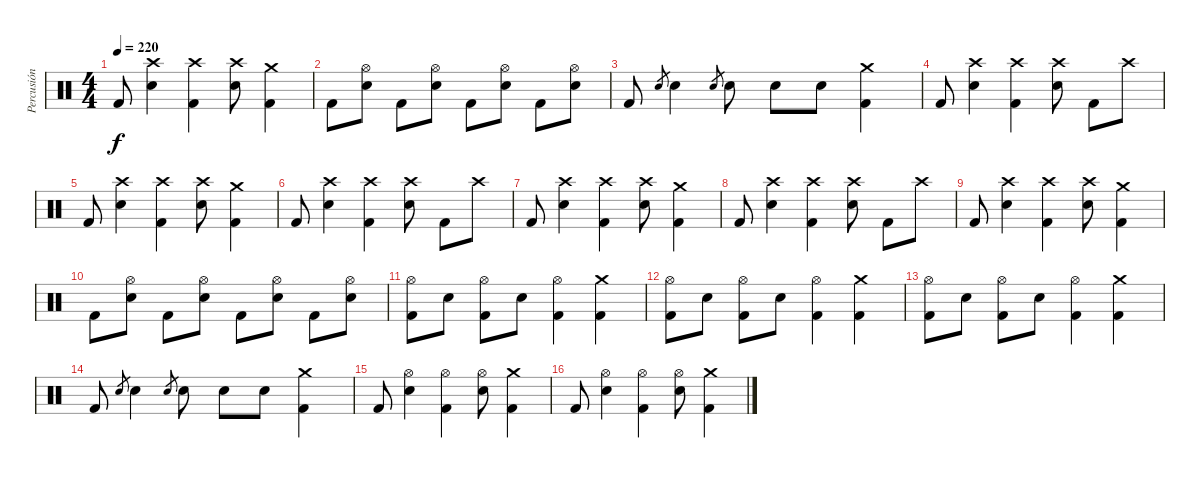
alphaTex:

\track ("Percusión" "Percusión") {instrument percussion}
\staff {score}
\articulation defaults
\ts (4 4)
\tempo 220
\clef neutral
\ks c "Kick (hit) 2".8{dy f}
("Crash high (hit)" "Snare (hit) 2").4 ("Crash high (hit)" "Kick (hit) 2").4 ("Crash high (hit)" "Snare (hit) 2").8 ("Crash medium (hit)" "Kick (hit) 2").4 |
"Kick (hit) 2".8 ("Hi-Hat (open)" "Snare (hit) 2").8 "Kick (hit) 2".8 ("Hi-Hat (open)" "Snare (hit) 2").8 "Kick (hit) 2".8 ("Hi-Hat (open)" "Snare (hit) 2").8 "Kick (hit) 2".8 ("Hi-Hat (open)" "Snare (hit) 2").8 |
"Kick (hit) 2".8 "Snare (hit) 2".8{gr} "Snare (hit) 2".4 "Snare (hit) 2".8{gr} "Snare (hit) 2".8 "Snare (hit) 2".8 "Snare (hit) 2".8 ("Crash medium (hit)" "Kick (hit) 2").4 |
"Kick (hit) 2".8 ("Crash high (hit)" "Snare (hit) 2").4 ("Crash high (hit)" "Kick (hit) 2").4 ("Crash high (hit)" "Snare (hit) 2").8 "Kick (hit) 2".8 "Crash high (hit)".8 |
"Kick (hit) 2".8 ("Crash high (hit)" "Snare (hit) 2").4 ("Crash high (hit)" "Kick (hit) 2").4 ("Crash high (hit)" "Snare (hit) 2").8 ("Crash medium (hit)" "Kick (hit) 2").4 |
"Kick (hit) 2".8 ("Crash high (hit)" "Snare (hit) 2").4 ("Crash high (hit)" "Kick (hit) 2").4 ("Crash high (hit)" "Snare (hit) 2").8 "Kick (hit) 2".8 "Crash high (hit)".8 |
"Kick (hit) 2".8 ("Crash high (hit)" "Snare (hit) 2").4 ("Crash high (hit)" "Kick (hit) 2").4 ("Crash high (hit)" "Snare (hit) 2").8 ("Crash medium (hit)" "Kick (hit) 2").4 |
"Kick (hit) 2".8 ("Crash high (hit)" "Snare (hit) 2").4 ("Crash high (hit)" "Kick (hit) 2").4 ("Crash high (hit)" "Snare (hit) 2").8 "Kick (hit) 2".8 "Crash high (hit)".8 |
"Kick (hit) 2".8 ("Crash high (hit)" "Snare (hit) 2").4 ("Crash high (hit)" "Kick (hit) 2").4 ("Crash high (hit)" "Snare (hit) 2").8 ("Crash medium (hit)" "Kick (hit) 2").4 |
"Kick (hit) 2".8 ("Hi-Hat (open)" "Snare (hit) 2").8 "Kick (hit) 2".8 ("Hi-Hat (open)" "Snare (hit) 2").8 "Kick (hit) 2".8 ("Hi-Hat (open)" "Snare (hit) 2").8 "Kick (hit) 2".8 ("Hi-Hat (open)" "Snare (hit) 2").8 |
("Hi-Hat (open)" "Kick (hit) 2").8 "Snare (hit) 2".8 ("Hi-Hat (open)" "Kick (hit) 2").8 "Snare (hit) 2".8 ("Hi-Hat (open)" "Kick (hit) 2").4 ("Crash medium (hit)" "Kick (hit) 2").4 |
("Hi-Hat (open)" "Kick (hit) 2").8 "Snare (hit) 2".8 ("Hi-Hat (open)" "Kick (hit) 2").8 "Snare (hit) 2".8 ("Hi-Hat (open)" "Kick (hit) 2").4 ("Crash medium (hit)" "Kick (hit) 2").4 |
("Hi-Hat (open)" "Kick (hit) 2").8 "Snare (hit) 2".8 ("Hi-Hat (open)" "Kick (hit) 2").8 "Snare (hit) 2".8 ("Hi-Hat (open)" "Kick (hit) 2").4 ("Crash medium (hit)" "Kick (hit) 2").4 |
"Kick (hit) 2".8 "Snare (hit) 2".8{gr} "Snare (hit) 2".4 "Snare (hit) 2".8{gr} "Snare (hit) 2".8 "Snare (hit) 2".8 "Snare (hit) 2".8 ("Crash medium (hit)" "Kick (hit) 2").4 |
"Kick (hit) 2".8 ("Hi-Hat (open)" "Snare (hit) 2").4 ("Hi-Hat (open)" "Kick (hit) 2").4 ("Hi-Hat (open)" "Snare (hit) 2").8 ("Crash medium (hit)" "Kick (hit) 2").4 |
"Kick (hit) 2".8 ("Hi-Hat (open)" "Snare (hit) 2").4 ("Hi-Hat (open)" "Kick (hit) 2").4 ("Hi-Hat (open)" "Snare (hit) 2").8 ("Crash medium (hit)" "Kick (hit) 2").4
